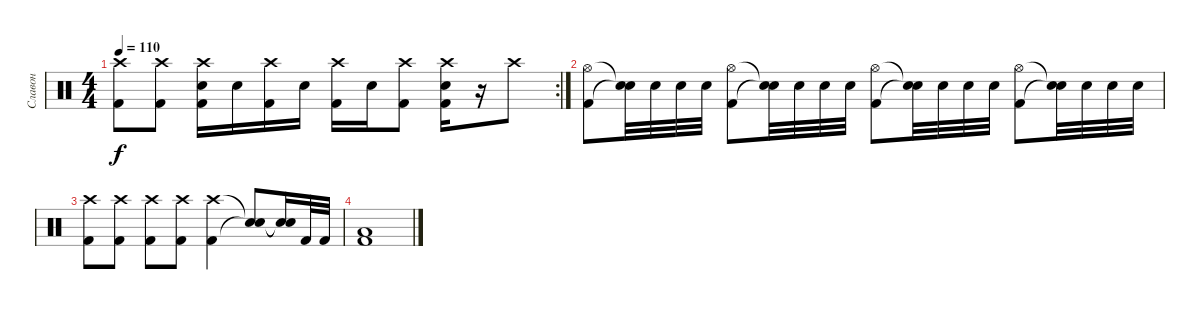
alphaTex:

\track ("Славон" "Славон") {instrument percussion}
\staff {score}
\articulation defaults
\rc 2
\ts (4 4)
\tempo 110
\clef neutral
\ks c
("Crash high (hit)" "Kick (hit) 2").8{dy f} ("Crash high (hit)" "Kick (hit) 2").8 ("Crash high (hit)" "Snare (hit) 2" "Kick (hit) 2").16 "Snare (hit) 2".16 ("Crash high (hit)" "Kick (hit) 2").16 "Snare (hit) 2".16 ("Crash high (hit)" "Kick (hit) 2").16 "Snare (hit) 2".16 ("Crash high (hit)" "Kick (hit) 2").8 ("Crash high (hit)" "Snare (hit) 2" "Kick (hit) 2").16 r.16 "Crash high (hit)".8 |
("Hi-Hat (open)" "Kick (hit) 2").8 ("Snare (hit)"{t} "Snare (hit) 2"{t}).32 "Snare (hit) 2".32 "Snare (hit) 2".32 "Snare (hit) 2".32 ("Hi-Hat (open)" "Kick (hit) 2").8 ("Snare (hit)"{t} "Snare (hit) 2"{t}).32 "Snare (hit) 2".32 "Snare (hit) 2".32 "Snare (hit) 2".32 ("Hi-Hat (open)" "Kick (hit) 2").8 ("Snare (hit)"{t} "Snare (hit) 2"{t}).32 "Snare (hit) 2".32 "Snare (hit) 2".32 "Snare (hit) 2".32 ("Hi-Hat (open)" "Kick (hit) 2").8 ("Snare (hit)"{t} "Snare (hit) 2"{t}).32 "Snare (hit) 2".32 "Snare (hit) 2".32 "Snare (hit) 2".32 |
("Crash high (hit)" "Kick (hit) 2").8 ("Crash high (hit)" "Kick (hit) 2").8 ("Crash high (hit)" "Kick (hit) 2").8 ("Crash high (hit)" "Kick (hit) 2").8 ("Crash high (hit)" "Kick (hit) 2").4 ("Snare (hit)"{t} "Snare (hit)"{t}).8 ("Snare (hit)"{t} "Snare (hit)"{t}).16 "Kick (hit) 2".32 "Kick (hit) 2".32 |
("Low Tom (hit)" "Kick (hit) 2").1
